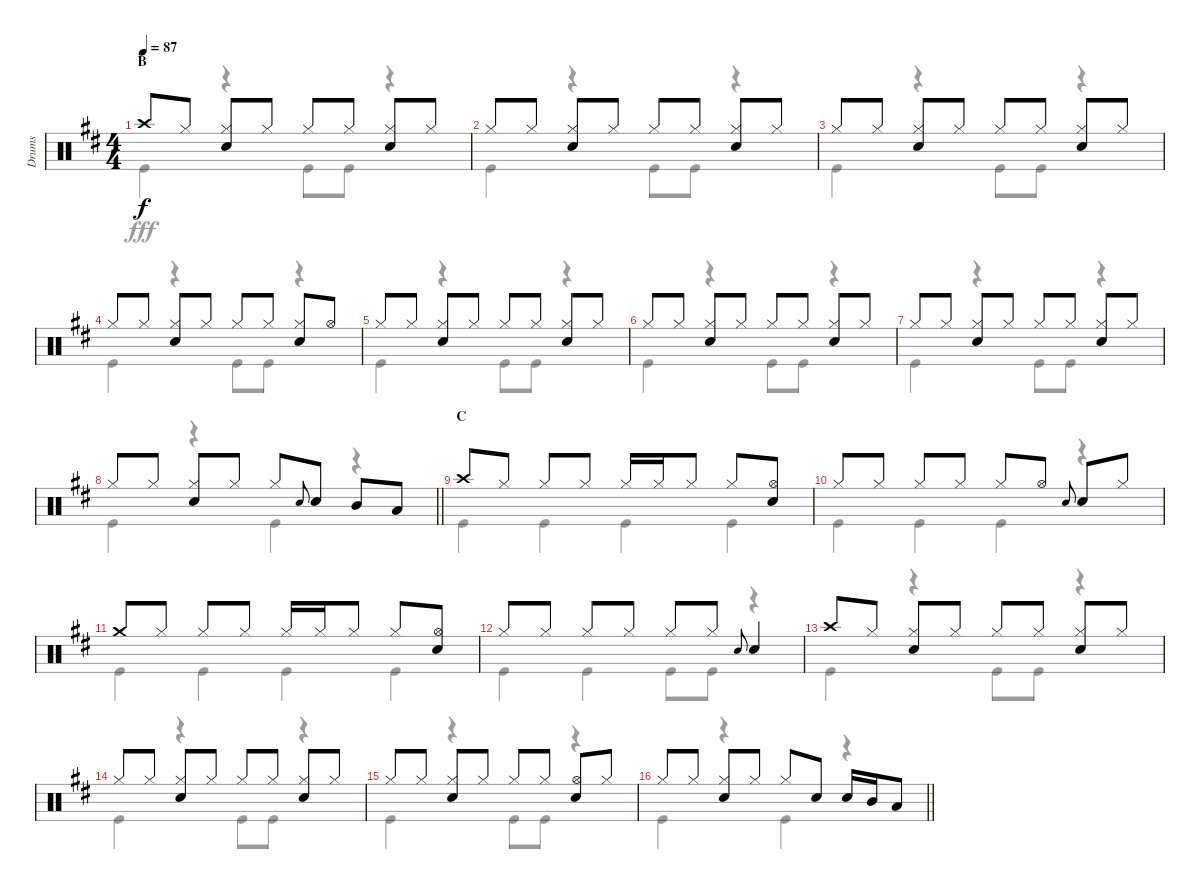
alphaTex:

\track ("Drums" "Drums") {instrument percussion}
\staff {score}
\articulation defaults
\voice
\ts (4 4)
\section ("" "B")
\tempo 87
\clef neutral
\ks d "Crash high (hit)".8{dy f} "Hi-Hat (closed)".8
("Hi-Hat (closed)" "Snare (hit) 2").8 "Hi-Hat (closed)".8 "Hi-Hat (closed)".8 "Hi-Hat (closed)".8 ("Hi-Hat (closed)" "Snare (hit) 2").8 "Hi-Hat (closed)".8 |
"Hi-Hat (closed)".8 "Hi-Hat (closed)".8 ("Hi-Hat (closed)" "Snare (hit) 2").8 "Hi-Hat (closed)".8 "Hi-Hat (closed)".8 "Hi-Hat (closed)".8 ("Hi-Hat (closed)" "Snare (hit) 2").8 "Hi-Hat (closed)".8 |
"Hi-Hat (closed)".8 "Hi-Hat (closed)".8 ("Hi-Hat (closed)" "Snare (hit) 2").8 "Hi-Hat (closed)".8 "Hi-Hat (closed)".8 "Hi-Hat (closed)".8 ("Hi-Hat (closed)" "Snare (hit) 2").8 "Hi-Hat (closed)".8 |
"Hi-Hat (closed)".8 "Hi-Hat (closed)".8 ("Hi-Hat (closed)" "Snare (hit) 2").8 "Hi-Hat (closed)".8 "Hi-Hat (closed)".8 "Hi-Hat (closed)".8 ("Hi-Hat (closed)" "Snare (hit) 2").8 "Hi-Hat (open)".8 |
"Hi-Hat (closed)".8 "Hi-Hat (closed)".8 ("Hi-Hat (closed)" "Snare (hit) 2").8 "Hi-Hat (closed)".8 "Hi-Hat (closed)".8 "Hi-Hat (closed)".8 ("Hi-Hat (closed)" "Snare (hit) 2").8 "Hi-Hat (closed)".8 |
"Hi-Hat (closed)".8 "Hi-Hat (closed)".8 ("Hi-Hat (closed)" "Snare (hit) 2").8 "Hi-Hat (closed)".8 "Hi-Hat (closed)".8 "Hi-Hat (closed)".8 ("Hi-Hat (closed)" "Snare (hit) 2").8 "Hi-Hat (closed)".8 |
"Hi-Hat (closed)".8 "Hi-Hat (closed)".8 ("Hi-Hat (closed)" "Snare (hit) 2").8 "Hi-Hat (closed)".8 "Hi-Hat (closed)".8 "Hi-Hat (closed)".8 ("Hi-Hat (closed)" "Snare (hit) 2").8 "Hi-Hat (closed)".8 |
\barLineRight lightlight "Hi-Hat (closed)".8 "Hi-Hat (closed)".8
("Hi-Hat (closed)" "Snare (hit) 2").8 "Hi-Hat (closed)".8 "Hi-Hat (closed)".8 "Snare (hit) 2".8{gr onbeat} "Snare (hit) 2".8 "Mid Tom (hit)".8 "Low Tom (hit)".8 |
\section ("" "C")
"Crash high (hit)".8 "Hi-Hat (closed)".8 "Hi-Hat (closed)".8 "Hi-Hat (closed)".8 "Hi-Hat (closed)".16 "Hi-Hat (closed)".16 "Hi-Hat (closed)".8 "Hi-Hat (closed)".8 ("Hi-Hat (open)" "Snare (hit) 2").8 |
"Hi-Hat (closed)".8 "Hi-Hat (closed)".8 "Hi-Hat (closed)".8 "Hi-Hat (closed)".8 "Hi-Hat (closed)".8 "Hi-Hat (open)".8 "Snare (hit) 2".8{gr onbeat} "Snare (hit) 2".8 "Hi-Hat (closed)".8 |
"Crash medium (hit)".8 "Hi-Hat (closed)".8 "Hi-Hat (closed)".8 "Hi-Hat (closed)".8 "Hi-Hat (closed)".16 "Hi-Hat (closed)".16 "Hi-Hat (closed)".8 "Hi-Hat (closed)".8 ("Hi-Hat (open)" "Snare (hit) 2").8 |
"Hi-Hat (closed)".8 "Hi-Hat (closed)".8 "Hi-Hat (closed)".8 "Hi-Hat (closed)".8 "Hi-Hat (closed)".8 "Hi-Hat (closed)".8 "Snare (hit) 2".8{gr onbeat} "Snare (hit) 2".4 |
"Crash high (hit)".8 "Hi-Hat (closed)".8 ("Hi-Hat (closed)" "Snare (hit) 2").8 "Hi-Hat (closed)".8 "Hi-Hat (closed)".8 "Hi-Hat (closed)".8 ("Hi-Hat (closed)" "Snare (hit) 2").8 "Hi-Hat (closed)".8 |
"Hi-Hat (closed)".8 "Hi-Hat (closed)".8 ("Hi-Hat (closed)" "Snare (hit) 2").8 "Hi-Hat (closed)".8 "Hi-Hat (closed)".8 "Hi-Hat (closed)".8 ("Hi-Hat (closed)" "Snare (hit) 2").8 "Hi-Hat (closed)".8 |
"Hi-Hat (closed)".8 "Hi-Hat (closed)".8 ("Hi-Hat (closed)" "Snare (hit) 2").8 "Hi-Hat (closed)".8 "Hi-Hat (closed)".8 "Hi-Hat (closed)".8 ("Hi-Hat (open)" "Snare (hit) 2").8 "Hi-Hat (closed)".8 |
\barLineRight lightlight "Hi-Hat (closed)".8 "Hi-Hat (closed)".8
("Hi-Hat (closed)" "Snare (hit) 2").8 "Hi-Hat (closed)".8 "Hi-Hat (closed)".8 "Snare (hit) 2".8 "Snare (hit) 2".16 "Mid Tom (hit)".16 "Low Tom (hit)".8
\voice
\clef neutral
\ottava regular
\simile none
\ks d "Kick (hit)".4{dy fff}
r.4 "Kick (hit)".8 "Kick (hit)".8 r.4 |
"Kick (hit)".4 r.4 "Kick (hit)".8 "Kick (hit)".8 r.4 |
"Kick (hit)".4 r.4 "Kick (hit)".8 "Kick (hit)".8 r.4 |
"Kick (hit)".4 r.4 "Kick (hit)".8 "Kick (hit)".8 r.4 |
"Kick (hit)".4 r.4 "Kick (hit)".8 "Kick (hit)".8 r.4 |
"Kick (hit)".4 r.4 "Kick (hit)".8 "Kick (hit)".8 r.4 |
"Kick (hit)".4 r.4 "Kick (hit)".8 "Kick (hit)".8 r.4 |
\barLineRight lightlight "Kick (hit)".4
r.4 "Kick (hit)".4 r.4 |
"Kick (hit)".4 "Kick (hit)".4 "Kick (hit)".4 "Kick (hit)".4 |
"Kick (hit)".4 "Kick (hit)".4 "Kick (hit)".4 r.4 |
"Kick (hit)".4 "Kick (hit)".4 "Kick (hit)".4 "Kick (hit)".4 |
"Kick (hit)".4 "Kick (hit)".4 "Kick (hit)".8 "Kick (hit)".8 r.4 |
"Kick (hit)".4 r.4 "Kick (hit)".8 "Kick (hit)".8 r.4 |
"Kick (hit)".4 r.4 "Kick (hit)".8 "Kick (hit)".8 r.4 |
"Kick (hit)".4 r.4 "Kick (hit)".8 "Kick (hit)".8 r.4 |
\barLineRight lightlight "Kick (hit)".4
r.4 "Kick (hit)".4 r.4
